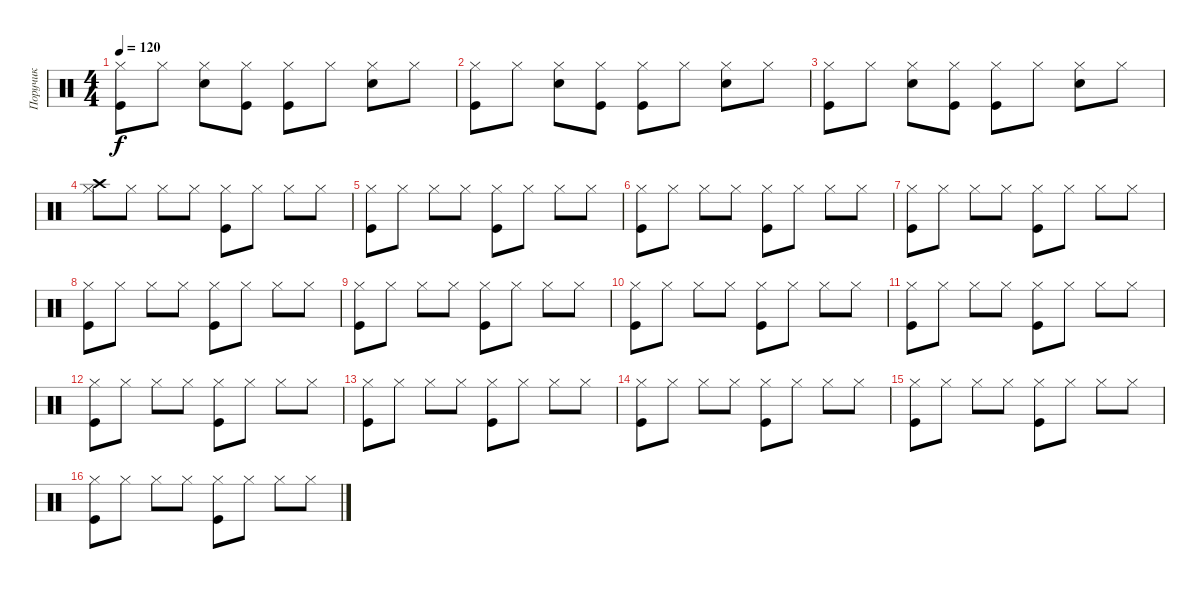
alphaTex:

\track ("Поручик" "Поручик") {instrument percussion}
\staff {score}
\articulation defaults
\ts (4 4)
\tempo 120
\clef neutral
\ks c
("Hi-Hat (closed)" "Kick (hit)").8{dy f} "Hi-Hat (closed)".8 ("Hi-Hat (closed)" "Snare (hit) 2").8 ("Hi-Hat (closed)" "Kick (hit)").8 ("Hi-Hat (closed)" "Kick (hit)").8 "Hi-Hat (closed)".8 ("Hi-Hat (closed)" "Snare (hit) 2").8 "Hi-Hat (closed)".8 |
("Hi-Hat (closed)" "Kick (hit)").8 "Hi-Hat (closed)".8 ("Hi-Hat (closed)" "Snare (hit) 2").8 ("Hi-Hat (closed)" "Kick (hit)").8 ("Hi-Hat (closed)" "Kick (hit)").8 "Hi-Hat (closed)".8 ("Hi-Hat (closed)" "Snare (hit) 2").8 "Hi-Hat (closed)".8 |
("Hi-Hat (closed)" "Kick (hit)").8 "Hi-Hat (closed)".8 ("Hi-Hat (closed)" "Snare (hit) 2").8 ("Hi-Hat (closed)" "Kick (hit)").8 ("Hi-Hat (closed)" "Kick (hit)").8 "Hi-Hat (closed)".8 ("Hi-Hat (closed)" "Snare (hit) 2").8 "Hi-Hat (closed)".8 |
("Hi-Hat (closed)" "Crash high (hit)").8 "Hi-Hat (closed)".8 "Hi-Hat (closed)".8 "Hi-Hat (closed)".8 ("Hi-Hat (closed)" "Kick (hit)").8 "Hi-Hat (closed)".8 "Hi-Hat (closed)".8 "Hi-Hat (closed)".8 |
("Hi-Hat (closed)" "Kick (hit)").8 "Hi-Hat (closed)".8 "Hi-Hat (closed)".8 "Hi-Hat (closed)".8 ("Hi-Hat (closed)" "Kick (hit)").8 "Hi-Hat (closed)".8 "Hi-Hat (closed)".8 "Hi-Hat (closed)".8 |
("Hi-Hat (closed)" "Kick (hit)").8 "Hi-Hat (closed)".8 "Hi-Hat (closed)".8 "Hi-Hat (closed)".8 ("Hi-Hat (closed)" "Kick (hit)").8 "Hi-Hat (closed)".8 "Hi-Hat (closed)".8 "Hi-Hat (closed)".8 |
("Hi-Hat (closed)" "Kick (hit)").8 "Hi-Hat (closed)".8 "Hi-Hat (closed)".8 "Hi-Hat (closed)".8 ("Hi-Hat (closed)" "Kick (hit)").8 "Hi-Hat (closed)".8 "Hi-Hat (closed)".8 "Hi-Hat (closed)".8 |
("Hi-Hat (closed)" "Kick (hit)").8 "Hi-Hat (closed)".8 "Hi-Hat (closed)".8 "Hi-Hat (closed)".8 ("Hi-Hat (closed)" "Kick (hit)").8 "Hi-Hat (closed)".8 "Hi-Hat (closed)".8 "Hi-Hat (closed)".8 |
("Hi-Hat (closed)" "Kick (hit)").8 "Hi-Hat (closed)".8 "Hi-Hat (closed)".8 "Hi-Hat (closed)".8 ("Hi-Hat (closed)" "Kick (hit)").8 "Hi-Hat (closed)".8 "Hi-Hat (closed)".8 "Hi-Hat (closed)".8 |
("Hi-Hat (closed)" "Kick (hit)").8 "Hi-Hat (closed)".8 "Hi-Hat (closed)".8 "Hi-Hat (closed)".8 ("Hi-Hat (closed)" "Kick (hit)").8 "Hi-Hat (closed)".8 "Hi-Hat (closed)".8 "Hi-Hat (closed)".8 |
("Hi-Hat (closed)" "Kick (hit)").8 "Hi-Hat (closed)".8 "Hi-Hat (closed)".8 "Hi-Hat (closed)".8 ("Hi-Hat (closed)" "Kick (hit)").8 "Hi-Hat (closed)".8 "Hi-Hat (closed)".8 "Hi-Hat (closed)".8 |
("Hi-Hat (closed)" "Kick (hit)").8 "Hi-Hat (closed)".8 "Hi-Hat (closed)".8 "Hi-Hat (closed)".8 ("Hi-Hat (closed)" "Kick (hit)").8 "Hi-Hat (closed)".8 "Hi-Hat (closed)".8 "Hi-Hat (closed)".8 |
("Hi-Hat (closed)" "Kick (hit)").8 "Hi-Hat (closed)".8 "Hi-Hat (closed)".8 "Hi-Hat (closed)".8 ("Hi-Hat (closed)" "Kick (hit)").8 "Hi-Hat (closed)".8 "Hi-Hat (closed)".8 "Hi-Hat (closed)".8 |
("Hi-Hat (closed)" "Kick (hit)").8 "Hi-Hat (closed)".8 "Hi-Hat (closed)".8 "Hi-Hat (closed)".8 ("Hi-Hat (closed)" "Kick (hit)").8 "Hi-Hat (closed)".8 "Hi-Hat (closed)".8 "Hi-Hat (closed)".8 |
("Hi-Hat (closed)" "Kick (hit)").8 "Hi-Hat (closed)".8 "Hi-Hat (closed)".8 "Hi-Hat (closed)".8 ("Hi-Hat (closed)" "Kick (hit)").8 "Hi-Hat (closed)".8 "Hi-Hat (closed)".8 "Hi-Hat (closed)".8 |
("Hi-Hat (closed)" "Kick (hit)").8 "Hi-Hat (closed)".8 "Hi-Hat (closed)".8 "Hi-Hat (closed)".8 ("Hi-Hat (closed)" "Kick (hit)").8 "Hi-Hat (closed)".8 "Hi-Hat (closed)".8 "Hi-Hat (closed)".8
